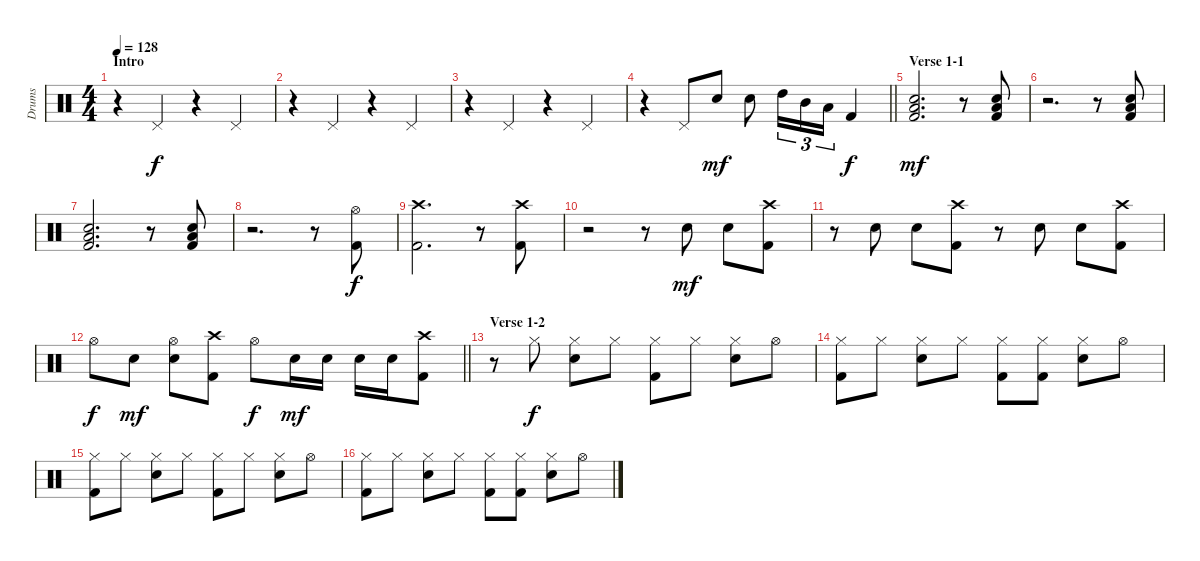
\track ("Drums" "Drums") {instrument percussion}
\staff {score}
\articulation defaults
\ts (4 4)
\section ("" "Intro")
\tempo 128
\clef neutral
\ks c
r.4{dy f} "Pedal Hi-Hat (hit)".4 r.4 "Pedal Hi-Hat (hit)".4 |
r.4 "Pedal Hi-Hat (hit)".4 r.4 "Pedal Hi-Hat (hit)".4 |
r.4 "Pedal Hi-Hat (hit)".4 r.4 "Pedal Hi-Hat (hit)".4 |
\barLineRight lightlight
r.4 "Pedal Hi-Hat (hit)".8 "Snare (hit) 2".8{dy mf} "Snare (hit) 2".8 "High Tom (hit)".16{tu (3 2)} "Mid Tom (hit)".16{tu (3 2)} "Low Tom (hit)".16{tu (3 2)} "Kick (hit) 2".4{dy f} |
\section ("" "Verse 1-1")
("Snare (hit) 2" "Low Tom (hit)" "Kick (hit) 2").2{d dy mf} r.8 ("Snare (hit) 2" "Low Tom (hit)" "Kick (hit) 2").8 |
r.2{d} r.8 ("Snare (hit) 2" "Low Tom (hit)" "Kick (hit) 2").8 |
("Snare (hit) 2" "Low Tom (hit)" "Kick (hit) 2").2{d} r.8 ("Snare (hit) 2" "Low Tom (hit)" "Kick (hit) 2").8 |
r.2{d} r.8 ("Hi-Hat (open)" "Kick (hit) 2").8{dy f} |
("Crash high (hit)" "Kick (hit) 2").2{d} r.8 ("Crash high (hit)" "Kick (hit) 2").8 |
r.2 r.8 "Snare (hit) 2".8{dy mf} "Snare (hit) 2".8 ("Crash high (hit)" "Kick (hit) 2").8 |
r.8 "Snare (hit) 2".8 "Snare (hit) 2".8 ("Crash high (hit)" "Kick (hit) 2").8 r.8 "Snare (hit) 2".8 "Snare (hit) 2".8 ("Crash high (hit)" "Kick (hit) 2").8 |
\barLineRight lightlight "Hi-Hat (open)".8{dy f} "Snare (hit) 2".8{dy mf}
("Hi-Hat (open)" "Snare (hit) 2").8 ("Crash high (hit)" "Kick (hit) 2").8 "Hi-Hat (open)".8{dy f} "Snare (hit) 2".16{dy mf} "Snare (hit) 2".16 "Snare (hit) 2".16 "Snare (hit) 2".16 ("Crash high (hit)" "Kick (hit) 2").8 |
\section ("" "Verse 1-2")
r.8 "Hi-Hat (closed)".8{dy f} ("Hi-Hat (closed)" "Snare (hit) 2").8 "Hi-Hat (closed)".8 ("Hi-Hat (closed)" "Kick (hit) 2").8 "Hi-Hat (closed)".8 ("Hi-Hat (closed)" "Snare (hit) 2").8 "Hi-Hat (open)".8 |
("Hi-Hat (closed)" "Kick (hit) 2").8 "Hi-Hat (closed)".8 ("Hi-Hat (closed)" "Snare (hit) 2").8 "Hi-Hat (closed)".8 ("Hi-Hat (closed)" "Kick (hit) 2").8 ("Hi-Hat (closed)" "Kick (hit) 2").8 ("Hi-Hat (closed)" "Snare (hit) 2").8 "Hi-Hat (open)".8 |
("Hi-Hat (closed)" "Kick (hit) 2").8 "Hi-Hat (closed)".8 ("Hi-Hat (closed)" "Snare (hit) 2").8 "Hi-Hat (closed)".8 ("Hi-Hat (closed)" "Kick (hit) 2").8 "Hi-Hat (closed)".8 ("Hi-Hat (closed)" "Snare (hit) 2").8 "Hi-Hat (open)".8 |
("Hi-Hat (closed)" "Kick (hit) 2").8 "Hi-Hat (closed)".8 ("Hi-Hat (closed)" "Snare (hit) 2").8 "Hi-Hat (closed)".8 ("Hi-Hat (closed)" "Kick (hit) 2").8 ("Hi-Hat (closed)" "Kick (hit) 2").8 ("Hi-Hat (closed)" "Snare (hit) 2").8 "Hi-Hat (open)".8
